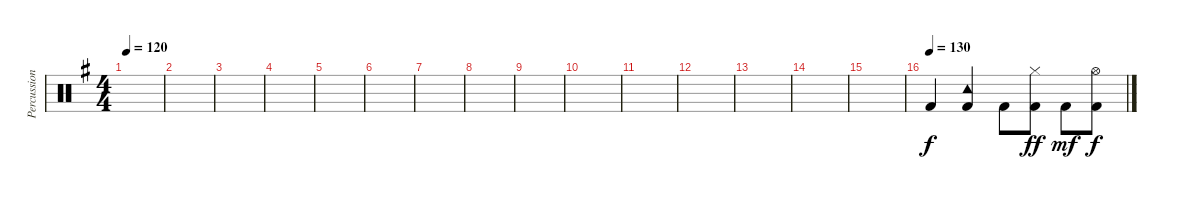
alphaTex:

\track ("Percussion" "Percussion") {instrument percussion}
\staff {score}
\articulation defaults
\ts (4 4)
\tempo 120
\clef neutral
\ks g
|
|
|
|
|
|
|
|
|
|
|
|
|
|
|
\tempo (130)
"Kick (hit) 2".4 ("Kick (hit) 2" "Tambourine (hit)").4 "Kick (hit) 2".8 ("Kick (hit) 2" "Hi-Hat (closed)").8{dy ff} "Kick (hit) 2".8{dy mf} ("Kick (hit) 2" "Hi-Hat (open)").8{dy f}
